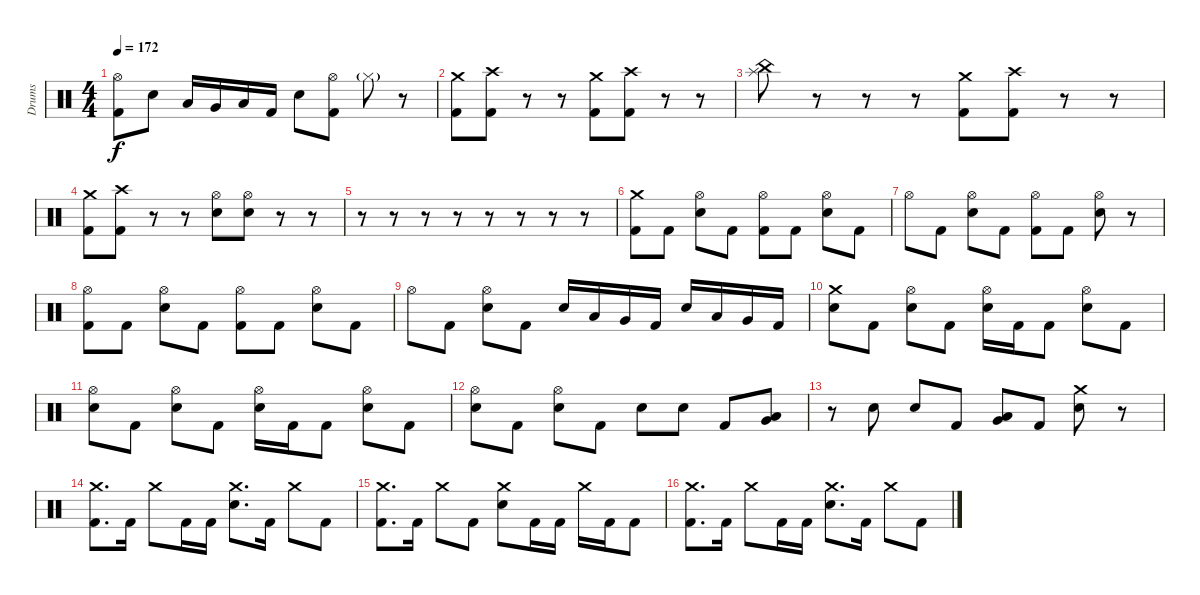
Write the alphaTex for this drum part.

\track ("Drums" "Drums") {instrument percussion}
\staff {score}
\articulation defaults
\ts (4 4)
\tempo 172
\clef neutral
\ks c
("Hi-Hat (open)" "Kick (hit) 2").8{dy f} "Electric Snare (hit)".8 "Low Tom (hit)".16 "Very Low Tom (hit)".16 "Low Floor Tom (hit)".16 "Kick (hit) 2".16 "Electric Snare (hit)".8 ("Hi-Hat (open)" "Kick (hit) 2").8 "Hi-Hat (closed)"{g}.8 r.8 |
("Crash medium (hit)" "Kick (hit) 2").8 ("Crash high (hit)" "Kick (hit) 2").8 r.8 r.8 ("Crash medium (hit)" "Kick (hit) 2").8 ("Crash high (hit)" "Kick (hit) 2").8 r.8 r.8 |
("China (hit)" "Splash (hit)").8 r.8 r.8 r.8 ("Crash medium (hit)" "Kick (hit) 2").8 ("Crash high (hit)" "Kick (hit) 2").8 r.8 r.8 |
("Crash medium (hit)" "Kick (hit) 2").8 ("Crash high (hit)" "Kick (hit) 2").8 r.8 r.8 ("Hi-Hat (open)" "Electric Snare (hit)").8 ("Hi-Hat (open)" "Electric Snare (hit)").8 r.8 r.8 |
r.8 r.8 r.8 r.8 r.8 r.8 r.8 r.8 |
("Crash medium (hit)" "Kick (hit) 2").8 "Kick (hit) 2".8 ("Hi-Hat (open)" "Electric Snare (hit)").8 "Kick (hit) 2".8 ("Hi-Hat (open)" "Kick (hit) 2").8 "Kick (hit) 2".8 ("Hi-Hat (open)" "Electric Snare (hit)").8 "Kick (hit) 2".8 |
"Hi-Hat (open)".8 "Kick (hit) 2".8 ("Hi-Hat (open)" "Electric Snare (hit)").8 "Kick (hit) 2".8 ("Hi-Hat (open)" "Kick (hit) 2").8 "Kick (hit) 2".8 ("Hi-Hat (open)" "Electric Snare (hit)").8 r.8 |
("Hi-Hat (open)" "Kick (hit) 2").8 "Kick (hit) 2".8 ("Hi-Hat (open)" "Electric Snare (hit)").8 "Kick (hit) 2".8 ("Hi-Hat (open)" "Kick (hit) 2").8 "Kick (hit) 2".8 ("Hi-Hat (open)" "Electric Snare (hit)").8 "Kick (hit) 2".8 |
"Hi-Hat (open)".8 "Kick (hit) 2".8 ("Hi-Hat (open)" "Electric Snare (hit)").8 "Kick (hit) 2".8 "Electric Snare (hit)".16 "Low Tom (hit)".16 "Very Low Tom (hit)".16 "Kick (hit) 2".16 "Electric Snare (hit)".16 "Low Tom (hit)".16 "Very Low Tom (hit)".16 "Kick (hit) 2".16 |
("Crash medium (hit)" "Electric Snare (hit)").8 "Kick (hit) 2".8 ("Hi-Hat (open)" "Electric Snare (hit)").8 "Kick (hit) 2".8 ("Hi-Hat (open)" "Electric Snare (hit)").16 "Kick (hit) 2".16 "Kick (hit) 2".8 ("Hi-Hat (open)" "Electric Snare (hit)").8 "Kick (hit) 2".8 |
("Hi-Hat (open)" "Electric Snare (hit)").8 "Kick (hit) 2".8 ("Hi-Hat (open)" "Electric Snare (hit)").8 "Kick (hit) 2".8 ("Hi-Hat (open)" "Electric Snare (hit)").16 "Kick (hit) 2".16 "Kick (hit) 2".8 ("Hi-Hat (open)" "Electric Snare (hit)").8 "Kick (hit) 2".8 |
("Hi-Hat (open)" "Electric Snare (hit)").8 "Kick (hit) 2".8 ("Hi-Hat (open)" "Electric Snare (hit)").8 "Kick (hit) 2".8 "Electric Snare (hit)".8 "Electric Snare (hit)".8 "Kick (hit) 2".8 ("Low Tom (hit)" "Very Low Tom (hit)").8 |
r.8 "Electric Snare (hit)".8 "Electric Snare (hit)".8 "Kick (hit) 2".8 ("Low Tom (hit)" "Very Low Tom (hit)").8 "Kick (hit) 2".8 ("Crash medium (hit)" "Electric Snare (hit)").8 r.8 |
("Crash medium (hit)" "Kick (hit) 2").8{d} "Kick (hit) 2".16 "Crash medium (hit)".8 "Kick (hit) 2".16 "Kick (hit) 2".16 ("Crash medium (hit)" "Electric Snare (hit)").8{d} "Kick (hit) 2".16 "Crash medium (hit)".8 "Kick (hit) 2".8 |
("Crash medium (hit)" "Kick (hit) 2").8{d} "Kick (hit) 2".16 "Crash medium (hit)".8 "Kick (hit) 2".8 ("Crash medium (hit)" "Electric Snare (hit)").8 "Kick (hit) 2".16 "Kick (hit) 2".16 "Crash medium (hit)".16 "Kick (hit) 2".16 "Kick (hit) 2".8 |
("Crash medium (hit)" "Kick (hit) 2").8{d} "Kick (hit) 2".16 "Crash medium (hit)".8 "Kick (hit) 2".16 "Kick (hit) 2".16 ("Crash medium (hit)" "Electric Snare (hit)").8{d} "Kick (hit) 2".16 "Crash medium (hit)".8 "Kick (hit) 2".8
